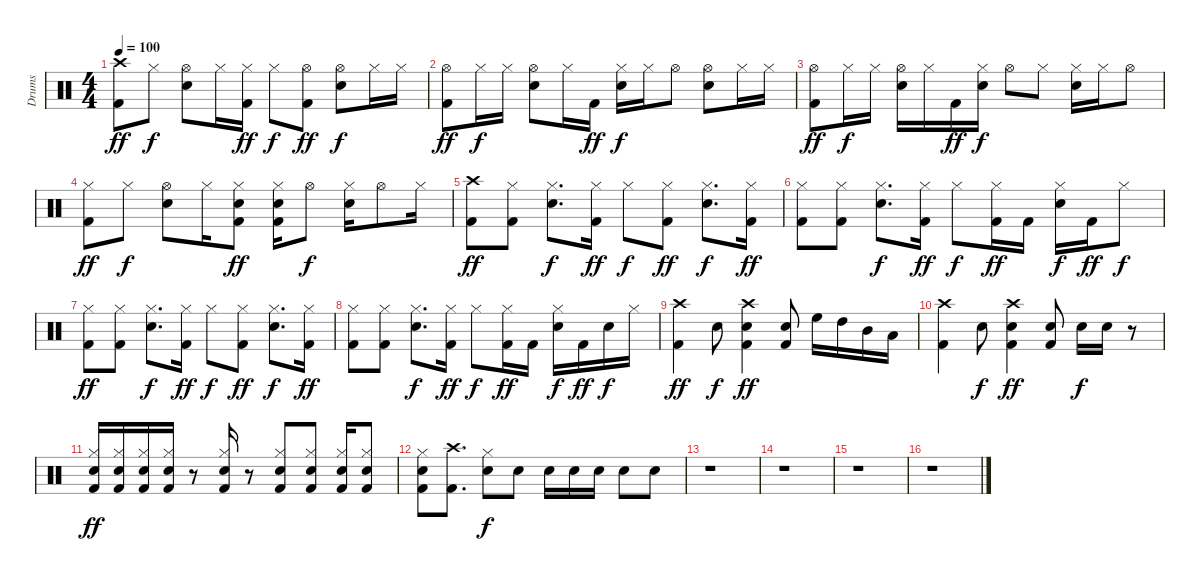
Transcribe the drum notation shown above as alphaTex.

\track ("Drums" "Drums") {instrument percussion}
\staff {score}
\articulation defaults
\ts (4 4)
\tempo 100
\clef neutral
\ks c
("Crash high (hit)" "Kick (hit) 2").8{dy ff} "Hi-Hat (closed)".8{dy f} ("Hi-Hat (open)" "Snare (hit) 2").8 "Hi-Hat (closed)".16 ("Hi-Hat (closed)" "Kick (hit) 2").16{dy ff} "Hi-Hat (closed)".8{dy f} ("Hi-Hat (open)" "Kick (hit) 2").8{dy ff} ("Hi-Hat (open)" "Snare (hit) 2").8{dy f} "Hi-Hat (closed)".16 "Hi-Hat (closed)".16 |
("Hi-Hat (open)" "Kick (hit) 2").8{dy ff} "Hi-Hat (closed)".16{dy f} "Hi-Hat (closed)".16 ("Hi-Hat (open)" "Snare (hit) 2").8 "Hi-Hat (closed)".16 "Kick (hit) 2".16{dy ff} ("Hi-Hat (closed)" "Snare (hit) 2").16{dy f} "Hi-Hat (closed)".16 "Hi-Hat (open)".8 ("Hi-Hat (open)" "Snare (hit) 2").8 "Hi-Hat (closed)".16 "Hi-Hat (closed)".16 |
("Hi-Hat (open)" "Kick (hit) 2").8{dy ff} "Hi-Hat (closed)".16{dy f} "Hi-Hat (closed)".16 ("Hi-Hat (open)" "Snare (hit) 2").16 "Hi-Hat (closed)".16 "Kick (hit) 2".16{dy ff} ("Hi-Hat (closed)" "Snare (hit) 2").16{dy f} "Hi-Hat (open)".8 "Hi-Hat (closed)".8 ("Hi-Hat (closed)" "Snare (hit) 2").16 "Hi-Hat (closed)".16 "Hi-Hat (open)".8 |
("Hi-Hat (closed)" "Kick (hit) 2").8{dy ff} "Hi-Hat (closed)".8{dy f} ("Hi-Hat (open)" "Snare (hit) 2").8 "Hi-Hat (closed)".16 ("Hi-Hat (closed)" "Snare (hit) 2" "Kick (hit) 2").8{dy ff} ("Hi-Hat (closed)" "Snare (hit) 2" "Kick (hit) 2").16 "Hi-Hat (open)".8{dy f} ("Hi-Hat (closed)" "Snare (hit) 2").16 "Hi-Hat (open)".8 "Hi-Hat (closed)".16 |
("Crash high (hit)" "Kick (hit) 2").8{dy ff} ("Hi-Hat (closed)" "Kick (hit) 2").8 ("Hi-Hat (closed)" "Snare (hit) 2").8{d dy f} ("Hi-Hat (closed)" "Kick (hit) 2").16{dy ff} "Hi-Hat (closed)".8{dy f} ("Hi-Hat (closed)" "Kick (hit) 2").8{dy ff} ("Hi-Hat (closed)" "Snare (hit) 2").8{d dy f} ("Hi-Hat (closed)" "Kick (hit) 2").16{dy ff} |
("Hi-Hat (closed)" "Kick (hit) 2").8 ("Hi-Hat (closed)" "Kick (hit) 2").8 ("Hi-Hat (closed)" "Snare (hit) 2").8{d dy f} ("Hi-Hat (closed)" "Kick (hit) 2").16{dy ff} "Hi-Hat (closed)".8{dy f} ("Hi-Hat (closed)" "Kick (hit) 2").16{dy ff} "Kick (hit) 2".16 ("Hi-Hat (closed)" "Snare (hit) 2").16{dy f} "Kick (hit) 2".16{dy ff} "Hi-Hat (closed)".8{dy f} |
("Hi-Hat (closed)" "Kick (hit) 2").8{dy ff} ("Hi-Hat (closed)" "Kick (hit) 2").8 ("Hi-Hat (closed)" "Snare (hit) 2").8{d dy f} ("Hi-Hat (closed)" "Kick (hit) 2").16{dy ff} "Hi-Hat (closed)".8{dy f} ("Hi-Hat (closed)" "Kick (hit) 2").8{dy ff} ("Hi-Hat (closed)" "Snare (hit) 2").8{d dy f} ("Hi-Hat (closed)" "Kick (hit) 2").16{dy ff} |
("Hi-Hat (closed)" "Kick (hit) 2").8 ("Hi-Hat (closed)" "Kick (hit) 2").8 ("Hi-Hat (closed)" "Snare (hit) 2").8{d dy f} ("Hi-Hat (closed)" "Kick (hit) 2").16{dy ff} "Hi-Hat (closed)".8{dy f} ("Hi-Hat (closed)" "Kick (hit) 2").16{dy ff} "Kick (hit) 2".16 ("Hi-Hat (closed)" "Snare (hit) 2").16{dy f} "Kick (hit) 2".16{dy ff} "Snare (hit) 2".16{dy f} "Hi-Hat (closed)".16 |
("Crash high (hit)" "Kick (hit) 2").4{dy ff} "Snare (hit) 2".8{dy f} ("Crash high (hit)" "Snare (hit) 2" "Kick (hit) 2").4{dy ff} ("Snare (hit) 2" "Kick (hit) 2").8 "High Floor Tom (hit)".16 "High Tom (hit)".16 "Mid Tom (hit)".16 "Low Tom (hit)".16 |
("Crash high (hit)" "Kick (hit) 2").4 "Snare (hit) 2".8{dy f} ("Crash high (hit)" "Snare (hit) 2" "Kick (hit) 2").4{dy ff} ("Snare (hit) 2" "Kick (hit) 2").8 "Snare (hit) 2".16{dy f} "Snare (hit) 2".16 r.8 |
("Hi-Hat (closed)" "Snare (hit) 2" "Kick (hit) 2").16{dy ff} ("Hi-Hat (closed)" "Snare (hit) 2" "Kick (hit) 2").16 ("Hi-Hat (closed)" "Snare (hit) 2" "Kick (hit) 2").16 ("Hi-Hat (closed)" "Snare (hit) 2" "Kick (hit) 2").16 r.8 ("Hi-Hat (closed)" "Snare (hit) 2" "Kick (hit) 2").16 r.8 ("Hi-Hat (closed)" "Snare (hit) 2" "Kick (hit) 2").8 ("Hi-Hat (closed)" "Snare (hit) 2" "Kick (hit) 2").8 ("Hi-Hat (closed)" "Snare (hit) 2" "Kick (hit) 2").16 ("Hi-Hat (closed)" "Snare (hit) 2" "Kick (hit) 2").8 |
("Hi-Hat (closed)" "Snare (hit) 2" "Kick (hit) 2").8 ("Crash high (hit)" "Kick (hit) 2").8{d} ("Hi-Hat (closed)" "Snare (hit) 2").8{dy f} "Snare (hit) 2".8 "Snare (hit) 2".16 "Snare (hit) 2".16 "Snare (hit) 2".16 "Snare (hit) 2".8 "Snare (hit) 2".8 |
r.1 |
r.1 |
r.1 |
r.1
